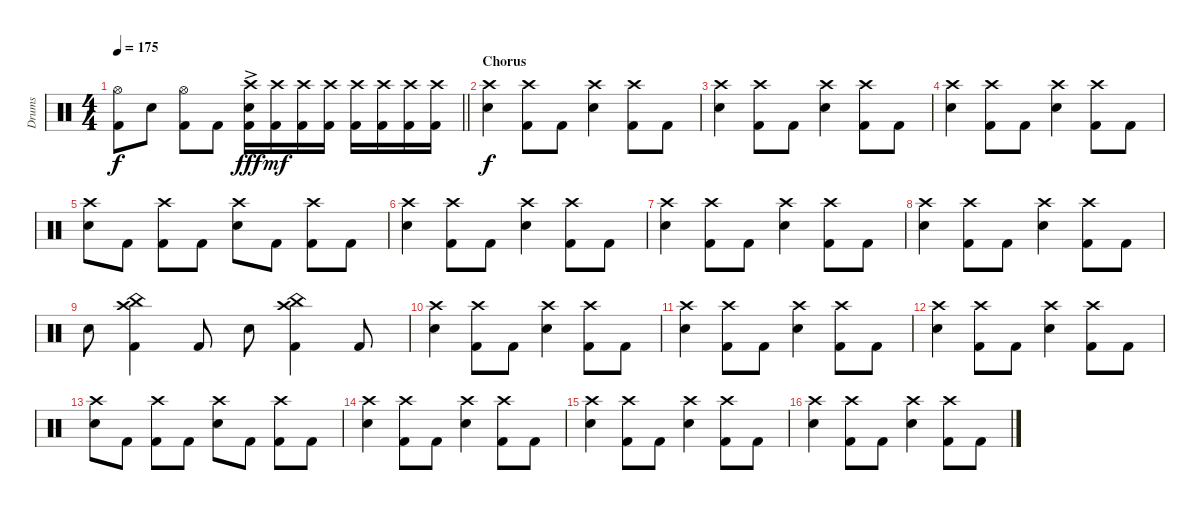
\track ("Drums" "Drums") {instrument percussion}
\staff {score}
\articulation defaults
\ts (4 4)
\tempo 175
\clef neutral
\barLineRight lightlight
\ks c
("Hi-Hat (open)" "Kick (hit) 2").8{dy f} "Snare (hit) 2".8 ("Hi-Hat (open)" "Kick (hit) 2").8 "Kick (hit) 2".8 ("Crash high (hit)" "Snare (hit) 2"{ac} "Kick (hit) 2").16{dy fff} ("Crash high (hit)" "Kick (hit) 2").16{dy mf} ("Crash high (hit)" "Kick (hit) 2").16 ("Crash high (hit)" "Kick (hit) 2").16 ("Crash high (hit)" "Kick (hit) 2").16 ("Crash high (hit)" "Kick (hit) 2").16 ("Crash high (hit)" "Kick (hit) 2").16 ("Crash high (hit)" "Kick (hit) 2").16 |
\section ("" "Chorus")
("Crash high (hit)" "Snare (hit) 2").4{dy f} ("Crash high (hit)" "Kick (hit) 2").8 "Kick (hit) 2".8 ("Crash high (hit)" "Snare (hit) 2").4 ("Crash high (hit)" "Kick (hit) 2").8 "Kick (hit) 2".8 |
("Crash high (hit)" "Snare (hit) 2").4 ("Crash high (hit)" "Kick (hit) 2").8 "Kick (hit) 2".8 ("Crash high (hit)" "Snare (hit) 2").4 ("Crash high (hit)" "Kick (hit) 2").8 "Kick (hit) 2".8 |
("Crash high (hit)" "Snare (hit) 2").4 ("Crash high (hit)" "Kick (hit) 2").8 "Kick (hit) 2".8 ("Crash high (hit)" "Snare (hit) 2").4 ("Crash high (hit)" "Kick (hit) 2").8 "Kick (hit) 2".8 |
("Crash high (hit)" "Snare (hit) 2").8 "Kick (hit) 2".8 ("Crash high (hit)" "Kick (hit) 2").8 "Kick (hit) 2".8 ("Crash high (hit)" "Snare (hit) 2").8 "Kick (hit) 2".8 ("Crash high (hit)" "Kick (hit) 2").8 "Kick (hit) 2".8 |
("Crash high (hit)" "Snare (hit) 2").4 ("Crash high (hit)" "Kick (hit) 2").8 "Kick (hit) 2".8 ("Crash high (hit)" "Snare (hit) 2").4 ("Crash high (hit)" "Kick (hit) 2").8 "Kick (hit) 2".8 |
("Crash high (hit)" "Snare (hit) 2").4 ("Crash high (hit)" "Kick (hit) 2").8 "Kick (hit) 2".8 ("Crash high (hit)" "Snare (hit) 2").4 ("Crash high (hit)" "Kick (hit) 2").8 "Kick (hit) 2".8 |
("Crash high (hit)" "Snare (hit) 2").4 ("Crash high (hit)" "Kick (hit) 2").8 "Kick (hit) 2".8 ("Crash high (hit)" "Snare (hit) 2").4 ("Crash high (hit)" "Kick (hit) 2").8 "Kick (hit) 2".8 |
"Snare (hit) 2".8 ("China (hit)" "Crash high (hit)" "Kick (hit) 2").4 "Kick (hit) 2".8 "Snare (hit) 2".8 ("China (hit)" "Crash high (hit)" "Kick (hit) 2").4 "Kick (hit) 2".8 |
("Crash high (hit)" "Snare (hit) 2").4 ("Crash high (hit)" "Kick (hit) 2").8 "Kick (hit) 2".8 ("Crash high (hit)" "Snare (hit) 2").4 ("Crash high (hit)" "Kick (hit) 2").8 "Kick (hit) 2".8 |
("Crash high (hit)" "Snare (hit) 2").4 ("Crash high (hit)" "Kick (hit) 2").8 "Kick (hit) 2".8 ("Crash high (hit)" "Snare (hit) 2").4 ("Crash high (hit)" "Kick (hit) 2").8 "Kick (hit) 2".8 |
("Crash high (hit)" "Snare (hit) 2").4 ("Crash high (hit)" "Kick (hit) 2").8 "Kick (hit) 2".8 ("Crash high (hit)" "Snare (hit) 2").4 ("Crash high (hit)" "Kick (hit) 2").8 "Kick (hit) 2".8 |
("Crash high (hit)" "Snare (hit) 2").8 "Kick (hit) 2".8 ("Crash high (hit)" "Kick (hit) 2").8 "Kick (hit) 2".8 ("Crash high (hit)" "Snare (hit) 2").8 "Kick (hit) 2".8 ("Crash high (hit)" "Kick (hit) 2").8 "Kick (hit) 2".8 |
("Crash high (hit)" "Snare (hit) 2").4 ("Crash high (hit)" "Kick (hit) 2").8 "Kick (hit) 2".8 ("Crash high (hit)" "Snare (hit) 2").4 ("Crash high (hit)" "Kick (hit) 2").8 "Kick (hit) 2".8 |
("Crash high (hit)" "Snare (hit) 2").4 ("Crash high (hit)" "Kick (hit) 2").8 "Kick (hit) 2".8 ("Crash high (hit)" "Snare (hit) 2").4 ("Crash high (hit)" "Kick (hit) 2").8 "Kick (hit) 2".8 |
("Crash high (hit)" "Snare (hit) 2").4 ("Crash high (hit)" "Kick (hit) 2").8 "Kick (hit) 2".8 ("Crash high (hit)" "Snare (hit) 2").4 ("Crash high (hit)" "Kick (hit) 2").8 "Kick (hit) 2".8
